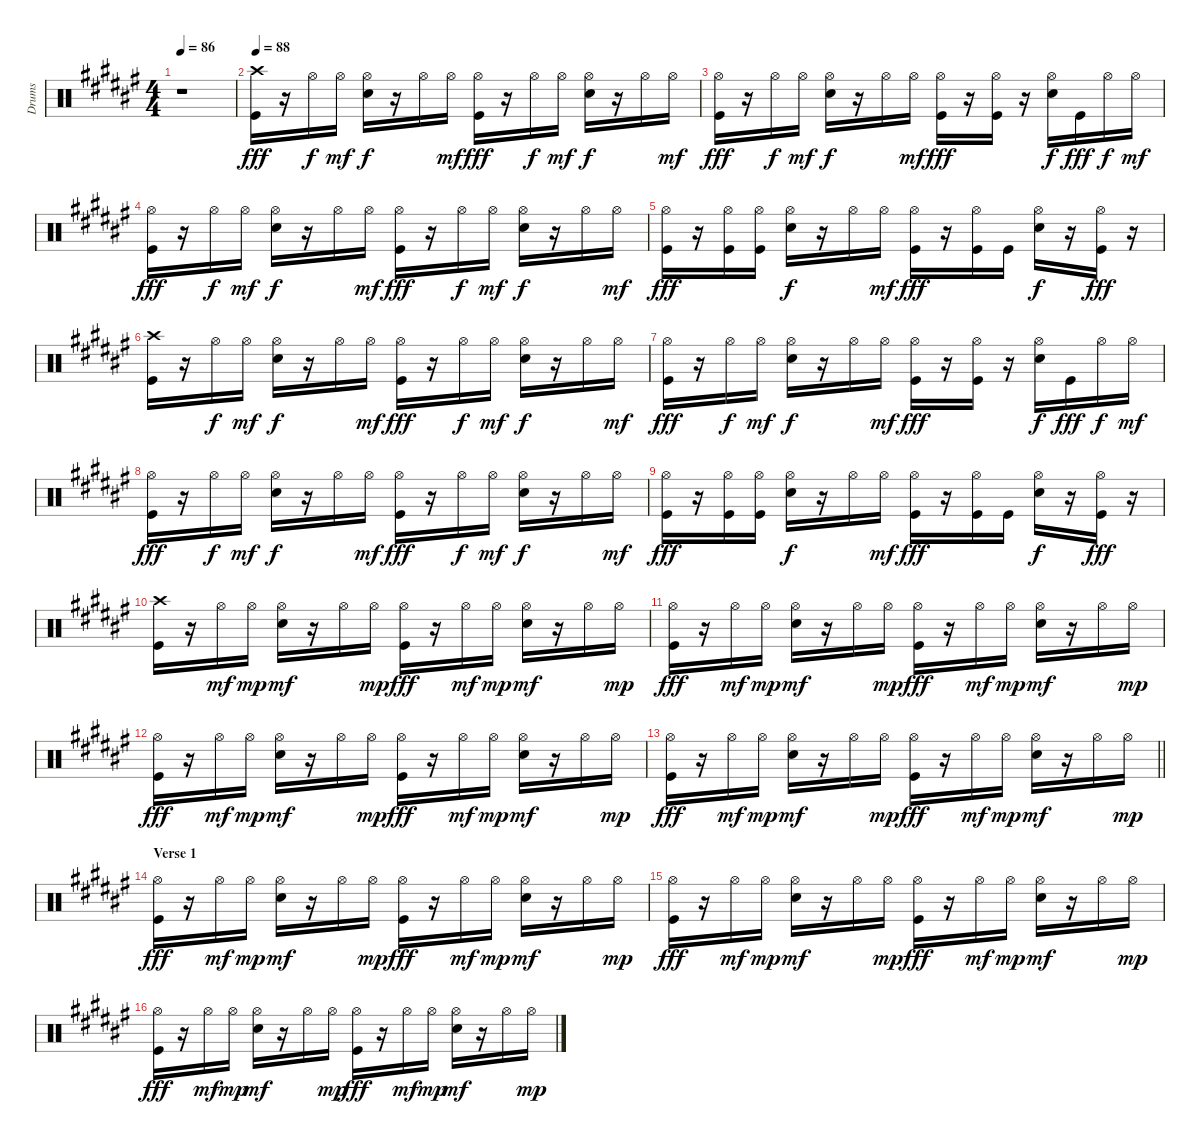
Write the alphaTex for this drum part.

\track ("Drums" "Drums") {instrument percussion}
\staff {score}
\articulation defaults
\ts (4 4)
\tempo 86
\clef neutral
\ks f#
r.1{dy fff} |
\tempo 88
("Crash high (hit)" "Kick (hit)").16 r.16 "Hi-Hat (open)".16{dy f} "Hi-Hat (open)".16{dy mf} ("Hi-Hat (open)" "Snare (hit) 2").16{dy f} r.16 "Hi-Hat (open)".16 "Hi-Hat (open)".16{dy mf} ("Hi-Hat (open)" "Kick (hit)").16{dy fff} r.16 "Hi-Hat (open)".16{dy f} "Hi-Hat (open)".16{dy mf} ("Hi-Hat (open)" "Snare (hit) 2").16{dy f} r.16 "Hi-Hat (open)".16 "Hi-Hat (open)".16{dy mf} |
("Hi-Hat (open)" "Kick (hit)").16{dy fff} r.16 "Hi-Hat (open)".16{dy f} "Hi-Hat (open)".16{dy mf} ("Hi-Hat (open)" "Snare (hit) 2").16{dy f} r.16 "Hi-Hat (open)".16 "Hi-Hat (open)".16{dy mf} ("Hi-Hat (open)" "Kick (hit)").16{dy fff} r.16 ("Hi-Hat (open)" "Kick (hit)").16 r.16 ("Hi-Hat (open)" "Snare (hit) 2").16{dy f} "Kick (hit)".16{dy fff} "Hi-Hat (open)".16{dy f} "Hi-Hat (open)".16{dy mf} |
("Hi-Hat (open)" "Kick (hit)").16{dy fff} r.16 "Hi-Hat (open)".16{dy f} "Hi-Hat (open)".16{dy mf} ("Hi-Hat (open)" "Snare (hit) 2").16{dy f} r.16 "Hi-Hat (open)".16 "Hi-Hat (open)".16{dy mf} ("Hi-Hat (open)" "Kick (hit)").16{dy fff} r.16 "Hi-Hat (open)".16{dy f} "Hi-Hat (open)".16{dy mf} ("Hi-Hat (open)" "Snare (hit) 2").16{dy f} r.16 "Hi-Hat (open)".16 "Hi-Hat (open)".16{dy mf} |
("Hi-Hat (open)" "Kick (hit)").16{dy fff} r.16 ("Hi-Hat (open)" "Kick (hit)").16 ("Hi-Hat (open)" "Kick (hit)").16 ("Hi-Hat (open)" "Snare (hit) 2").16{dy f} r.16 "Hi-Hat (open)".16 "Hi-Hat (open)".16{dy mf} ("Hi-Hat (open)" "Kick (hit)").16{dy fff} r.16 ("Hi-Hat (open)" "Kick (hit)").16 "Kick (hit)".16 ("Hi-Hat (open)" "Snare (hit) 2").16{dy f} r.16 ("Hi-Hat (open)" "Kick (hit)").16{dy fff} r.16 |
("Crash high (hit)" "Kick (hit)").16 r.16 "Hi-Hat (open)".16{dy f} "Hi-Hat (open)".16{dy mf} ("Hi-Hat (open)" "Snare (hit) 2").16{dy f} r.16 "Hi-Hat (open)".16 "Hi-Hat (open)".16{dy mf} ("Hi-Hat (open)" "Kick (hit)").16{dy fff} r.16 "Hi-Hat (open)".16{dy f} "Hi-Hat (open)".16{dy mf} ("Hi-Hat (open)" "Snare (hit) 2").16{dy f} r.16 "Hi-Hat (open)".16 "Hi-Hat (open)".16{dy mf} |
("Hi-Hat (open)" "Kick (hit)").16{dy fff} r.16 "Hi-Hat (open)".16{dy f} "Hi-Hat (open)".16{dy mf} ("Hi-Hat (open)" "Snare (hit) 2").16{dy f} r.16 "Hi-Hat (open)".16 "Hi-Hat (open)".16{dy mf} ("Hi-Hat (open)" "Kick (hit)").16{dy fff} r.16 ("Hi-Hat (open)" "Kick (hit)").16 r.16 ("Hi-Hat (open)" "Snare (hit) 2").16{dy f} "Kick (hit)".16{dy fff} "Hi-Hat (open)".16{dy f} "Hi-Hat (open)".16{dy mf} |
("Hi-Hat (open)" "Kick (hit)").16{dy fff} r.16 "Hi-Hat (open)".16{dy f} "Hi-Hat (open)".16{dy mf} ("Hi-Hat (open)" "Snare (hit) 2").16{dy f} r.16 "Hi-Hat (open)".16 "Hi-Hat (open)".16{dy mf} ("Hi-Hat (open)" "Kick (hit)").16{dy fff} r.16 "Hi-Hat (open)".16{dy f} "Hi-Hat (open)".16{dy mf} ("Hi-Hat (open)" "Snare (hit) 2").16{dy f} r.16 "Hi-Hat (open)".16 "Hi-Hat (open)".16{dy mf} |
("Hi-Hat (open)" "Kick (hit)").16{dy fff} r.16 ("Hi-Hat (open)" "Kick (hit)").16 ("Hi-Hat (open)" "Kick (hit)").16 ("Hi-Hat (open)" "Snare (hit) 2").16{dy f} r.16 "Hi-Hat (open)".16 "Hi-Hat (open)".16{dy mf} ("Hi-Hat (open)" "Kick (hit)").16{dy fff} r.16 ("Hi-Hat (open)" "Kick (hit)").16 "Kick (hit)".16 ("Hi-Hat (open)" "Snare (hit) 2").16{dy f} r.16 ("Hi-Hat (open)" "Kick (hit)").16{dy fff} r.16 |
("Crash high (hit)" "Kick (hit)").16 r.16 "Hi-Hat (open)".16{dy mf} "Hi-Hat (open)".16{dy mp} ("Hi-Hat (open)" "Snare (hit) 2").16{dy mf} r.16 "Hi-Hat (open)".16 "Hi-Hat (open)".16{dy mp} ("Hi-Hat (open)" "Kick (hit)").16{dy fff} r.16 "Hi-Hat (open)".16{dy mf} "Hi-Hat (open)".16{dy mp} ("Hi-Hat (open)" "Snare (hit) 2").16{dy mf} r.16 "Hi-Hat (open)".16 "Hi-Hat (open)".16{dy mp} |
("Hi-Hat (open)" "Kick (hit)").16{dy fff} r.16 "Hi-Hat (open)".16{dy mf} "Hi-Hat (open)".16{dy mp} ("Hi-Hat (open)" "Snare (hit) 2").16{dy mf} r.16 "Hi-Hat (open)".16 "Hi-Hat (open)".16{dy mp} ("Hi-Hat (open)" "Kick (hit)").16{dy fff} r.16 "Hi-Hat (open)".16{dy mf} "Hi-Hat (open)".16{dy mp} ("Hi-Hat (open)" "Snare (hit) 2").16{dy mf} r.16 "Hi-Hat (open)".16 "Hi-Hat (open)".16{dy mp} |
("Hi-Hat (open)" "Kick (hit)").16{dy fff} r.16 "Hi-Hat (open)".16{dy mf} "Hi-Hat (open)".16{dy mp} ("Hi-Hat (open)" "Snare (hit) 2").16{dy mf} r.16 "Hi-Hat (open)".16 "Hi-Hat (open)".16{dy mp} ("Hi-Hat (open)" "Kick (hit)").16{dy fff} r.16 "Hi-Hat (open)".16{dy mf} "Hi-Hat (open)".16{dy mp} ("Hi-Hat (open)" "Snare (hit) 2").16{dy mf} r.16 "Hi-Hat (open)".16 "Hi-Hat (open)".16{dy mp} |
\barLineRight lightlight
("Hi-Hat (open)" "Kick (hit)").16{dy fff} r.16 "Hi-Hat (open)".16{dy mf} "Hi-Hat (open)".16{dy mp} ("Hi-Hat (open)" "Snare (hit) 2").16{dy mf} r.16 "Hi-Hat (open)".16 "Hi-Hat (open)".16{dy mp} ("Hi-Hat (open)" "Kick (hit)").16{dy fff} r.16 "Hi-Hat (open)".16{dy mf} "Hi-Hat (open)".16{dy mp} ("Hi-Hat (open)" "Snare (hit) 2").16{dy mf} r.16 "Hi-Hat (open)".16 "Hi-Hat (open)".16{dy mp} |
\section ("" "Verse 1")
("Hi-Hat (open)" "Kick (hit)").16{dy fff} r.16 "Hi-Hat (open)".16{dy mf} "Hi-Hat (open)".16{dy mp} ("Hi-Hat (open)" "Snare (hit) 2").16{dy mf} r.16 "Hi-Hat (open)".16 "Hi-Hat (open)".16{dy mp} ("Hi-Hat (open)" "Kick (hit)").16{dy fff} r.16 "Hi-Hat (open)".16{dy mf} "Hi-Hat (open)".16{dy mp} ("Hi-Hat (open)" "Snare (hit) 2").16{dy mf} r.16 "Hi-Hat (open)".16 "Hi-Hat (open)".16{dy mp} |
("Hi-Hat (open)" "Kick (hit)").16{dy fff} r.16 "Hi-Hat (open)".16{dy mf} "Hi-Hat (open)".16{dy mp} ("Hi-Hat (open)" "Snare (hit) 2").16{dy mf} r.16 "Hi-Hat (open)".16 "Hi-Hat (open)".16{dy mp} ("Hi-Hat (open)" "Kick (hit)").16{dy fff} r.16 "Hi-Hat (open)".16{dy mf} "Hi-Hat (open)".16{dy mp} ("Hi-Hat (open)" "Snare (hit) 2").16{dy mf} r.16 "Hi-Hat (open)".16 "Hi-Hat (open)".16{dy mp} |
("Hi-Hat (open)" "Kick (hit)").16{dy fff} r.16 "Hi-Hat (open)".16{dy mf} "Hi-Hat (open)".16{dy mp} ("Hi-Hat (open)" "Snare (hit) 2").16{dy mf} r.16 "Hi-Hat (open)".16 "Hi-Hat (open)".16{dy mp} ("Hi-Hat (open)" "Kick (hit)").16{dy fff} r.16 "Hi-Hat (open)".16{dy mf} "Hi-Hat (open)".16{dy mp} ("Hi-Hat (open)" "Snare (hit) 2").16{dy mf} r.16 "Hi-Hat (open)".16 "Hi-Hat (open)".16{dy mp}
